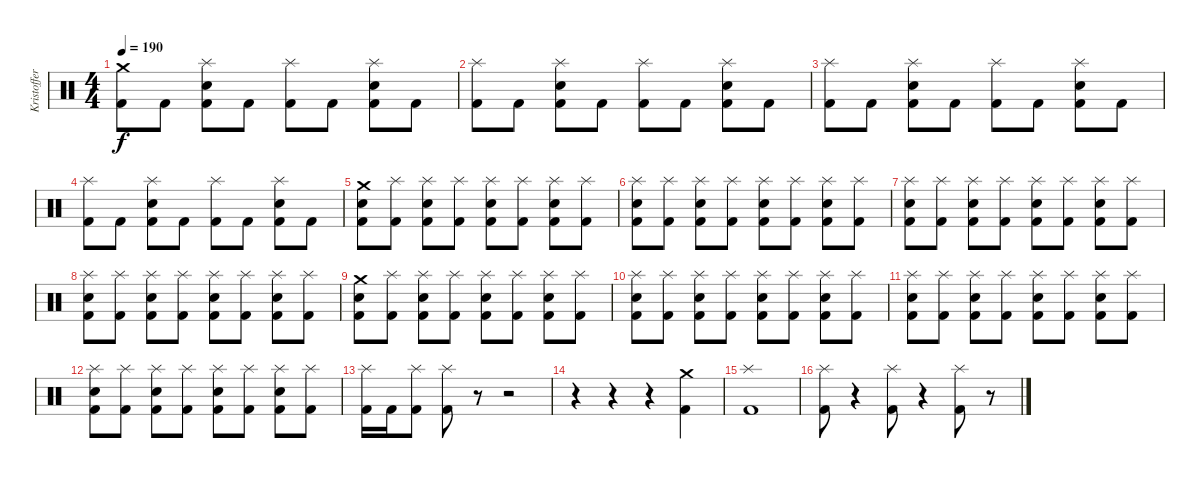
\track ("Kristoffer (Drums)" "Kristoffer") {instrument percussion}
\staff {score}
\articulation defaults
\ts (4 4)
\tempo 190
\clef neutral
\ks c
("Kick (hit) 2" "Crash medium (hit)").8{dy f} "Kick (hit) 2".8 ("Kick (hit) 2" "Electric Snare (hit)" "Splash (hit)").8 "Kick (hit) 2".8 ("Kick (hit) 2" "Splash (hit)").8 "Kick (hit) 2".8 ("Kick (hit) 2" "Electric Snare (hit)" "Splash (hit)").8 "Kick (hit) 2".8 |
("Kick (hit) 2" "Splash (hit)").8 "Kick (hit) 2".8 ("Kick (hit) 2" "Electric Snare (hit)" "Splash (hit)").8 "Kick (hit) 2".8 ("Kick (hit) 2" "Splash (hit)").8 "Kick (hit) 2".8 ("Kick (hit) 2" "Electric Snare (hit)" "Splash (hit)").8 "Kick (hit) 2".8 |
("Kick (hit) 2" "Splash (hit)").8 "Kick (hit) 2".8 ("Kick (hit) 2" "Electric Snare (hit)" "Splash (hit)").8 "Kick (hit) 2".8 ("Kick (hit) 2" "Splash (hit)").8 "Kick (hit) 2".8 ("Kick (hit) 2" "Electric Snare (hit)" "Splash (hit)").8 "Kick (hit) 2".8 |
("Kick (hit) 2" "Splash (hit)").8 "Kick (hit) 2".8 ("Kick (hit) 2" "Electric Snare (hit)" "Splash (hit)").8 "Kick (hit) 2".8 ("Kick (hit) 2" "Splash (hit)").8 "Kick (hit) 2".8 ("Kick (hit) 2" "Electric Snare (hit)" "Splash (hit)").8 "Kick (hit) 2".8 |
("Kick (hit) 2" "Electric Snare (hit)" "Crash medium (hit)").8 ("Kick (hit) 2" "Splash (hit)").8 ("Kick (hit) 2" "Electric Snare (hit)" "Splash (hit)").8 ("Kick (hit) 2" "Splash (hit)").8 ("Kick (hit) 2" "Electric Snare (hit)" "Splash (hit)").8 ("Kick (hit) 2" "Splash (hit)").8 ("Kick (hit) 2" "Electric Snare (hit)" "Splash (hit)").8 ("Kick (hit) 2" "Splash (hit)").8 |
("Kick (hit) 2" "Electric Snare (hit)" "Splash (hit)").8 ("Kick (hit) 2" "Splash (hit)").8 ("Kick (hit) 2" "Electric Snare (hit)" "Splash (hit)").8 ("Kick (hit) 2" "Splash (hit)").8 ("Kick (hit) 2" "Electric Snare (hit)" "Splash (hit)").8 ("Kick (hit) 2" "Splash (hit)").8 ("Kick (hit) 2" "Electric Snare (hit)" "Splash (hit)").8 ("Kick (hit) 2" "Splash (hit)").8 |
("Kick (hit) 2" "Electric Snare (hit)" "Splash (hit)").8 ("Kick (hit) 2" "Splash (hit)").8 ("Kick (hit) 2" "Electric Snare (hit)" "Splash (hit)").8 ("Kick (hit) 2" "Splash (hit)").8 ("Kick (hit) 2" "Electric Snare (hit)" "Splash (hit)").8 ("Kick (hit) 2" "Splash (hit)").8 ("Kick (hit) 2" "Electric Snare (hit)" "Splash (hit)").8 ("Kick (hit) 2" "Splash (hit)").8 |
("Kick (hit) 2" "Electric Snare (hit)" "Splash (hit)").8 ("Kick (hit) 2" "Splash (hit)").8 ("Kick (hit) 2" "Electric Snare (hit)" "Splash (hit)").8 ("Kick (hit) 2" "Splash (hit)").8 ("Kick (hit) 2" "Electric Snare (hit)" "Splash (hit)").8 ("Kick (hit) 2" "Splash (hit)").8 ("Kick (hit) 2" "Electric Snare (hit)" "Splash (hit)").8 ("Kick (hit) 2" "Splash (hit)").8 |
("Kick (hit) 2" "Electric Snare (hit)" "Crash medium (hit)").8 ("Kick (hit) 2" "Splash (hit)").8 ("Kick (hit) 2" "Electric Snare (hit)" "Splash (hit)").8 ("Kick (hit) 2" "Splash (hit)").8 ("Kick (hit) 2" "Electric Snare (hit)" "Splash (hit)").8 ("Kick (hit) 2" "Splash (hit)").8 ("Kick (hit) 2" "Electric Snare (hit)" "Splash (hit)").8 ("Kick (hit) 2" "Splash (hit)").8 |
("Kick (hit) 2" "Electric Snare (hit)" "Splash (hit)").8 ("Kick (hit) 2" "Splash (hit)").8 ("Kick (hit) 2" "Electric Snare (hit)" "Splash (hit)").8 ("Kick (hit) 2" "Splash (hit)").8 ("Kick (hit) 2" "Electric Snare (hit)" "Splash (hit)").8 ("Kick (hit) 2" "Splash (hit)").8 ("Kick (hit) 2" "Electric Snare (hit)" "Splash (hit)").8 ("Kick (hit) 2" "Splash (hit)").8 |
("Kick (hit) 2" "Electric Snare (hit)" "Splash (hit)").8 ("Kick (hit) 2" "Splash (hit)").8 ("Kick (hit) 2" "Electric Snare (hit)" "Splash (hit)").8 ("Kick (hit) 2" "Splash (hit)").8 ("Kick (hit) 2" "Electric Snare (hit)" "Splash (hit)").8 ("Kick (hit) 2" "Splash (hit)").8 ("Kick (hit) 2" "Electric Snare (hit)" "Splash (hit)").8 ("Kick (hit) 2" "Splash (hit)").8 |
("Kick (hit) 2" "Electric Snare (hit)" "Splash (hit)").8 ("Kick (hit) 2" "Splash (hit)").8 ("Kick (hit) 2" "Electric Snare (hit)" "Splash (hit)").8 ("Kick (hit) 2" "Splash (hit)").8 ("Kick (hit) 2" "Electric Snare (hit)" "Splash (hit)").8 ("Kick (hit) 2" "Splash (hit)").8 ("Kick (hit) 2" "Electric Snare (hit)" "Splash (hit)").8 ("Kick (hit) 2" "Splash (hit)").8 |
("Kick (hit) 2" "Splash (hit)").16 "Kick (hit) 2".16 ("Kick (hit) 2" "Splash (hit)").8 ("Kick (hit) 2" "Splash (hit)").8 r.8 r.2 |
r.4 r.4 r.4 ("Kick (hit) 2" "Crash medium (hit)").4 |
("Kick (hit) 2" "Splash (hit)").1 |
("Kick (hit) 2" "Splash (hit)").8 r.4 ("Kick (hit) 2" "Splash (hit)").8 r.4 ("Kick (hit) 2" "Splash (hit)").8 r.8
